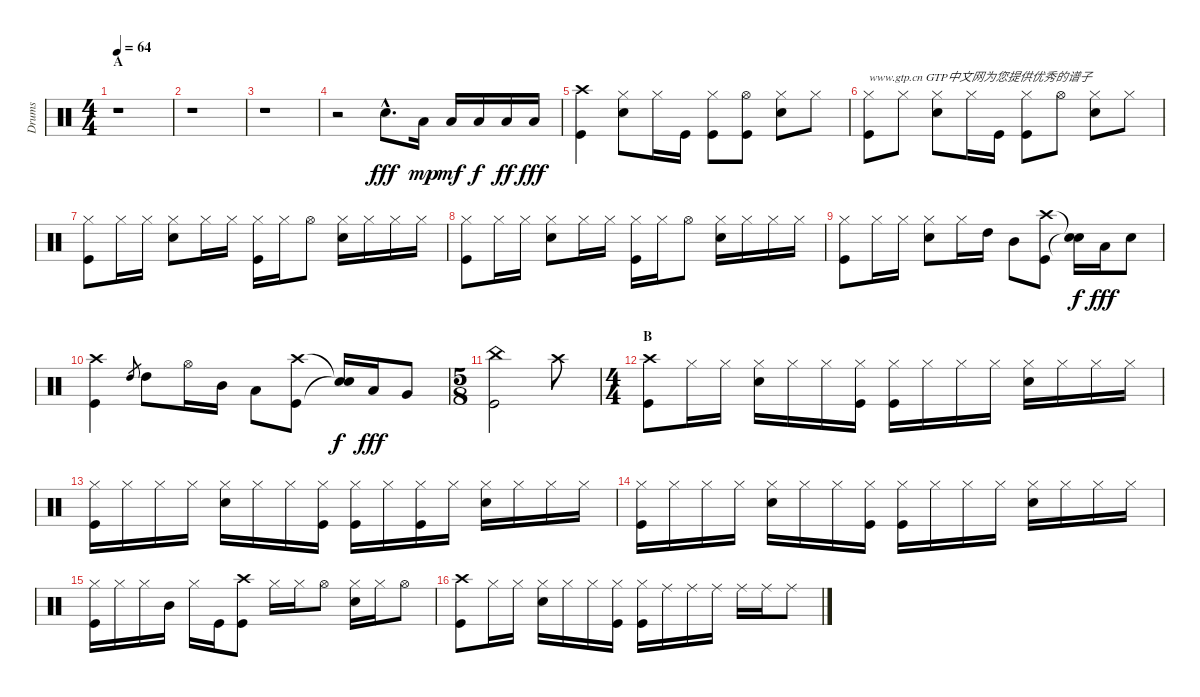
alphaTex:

\track ("Drums" "Drums") {instrument percussion}
\staff {score}
\articulation defaults
\ts (4 4)
\section ("" "A")
\tempo 64
\clef neutral
\ks c
r.1{dy fff} |
r.1 |
r.1 |
r.2 "Snare (hit) 2"{hac}.8{d} "Low Tom (hit)".16{dy mp} "Low Tom (hit)".16{dy mf} "Low Tom (hit)".16{dy f} "Low Tom (hit)".16{dy ff} "Low Tom (hit)".16{dy fff} |
("Crash high (hit)" "Kick (hit)").4 ("Hi-Hat (closed)" "Snare (hit) 2").8 "Hi-Hat (closed)".16 "Kick (hit)".16 ("Hi-Hat (closed)" "Kick (hit)").8 ("Hi-Hat (open)" "Kick (hit)").8 ("Hi-Hat (closed)" "Snare (hit) 2").8 "Hi-Hat (closed)".8 |
("Hi-Hat (closed)" "Kick (hit)").8{txt "www.gtp.cn GTP中文网为您提供优秀的谱子"} "Hi-Hat (closed)".8 ("Hi-Hat (closed)" "Snare (hit) 2").8 "Hi-Hat (closed)".16 "Kick (hit)".16 ("Hi-Hat (closed)" "Kick (hit)").8 "Hi-Hat (open)".8 ("Hi-Hat (closed)" "Snare (hit) 2").8 "Hi-Hat (closed)".8 |
("Hi-Hat (closed)" "Kick (hit)").8 "Hi-Hat (closed)".16 "Hi-Hat (closed)".16 ("Hi-Hat (closed)" "Snare (hit) 2").8 "Hi-Hat (closed)".16 "Hi-Hat (closed)".16 ("Hi-Hat (closed)" "Kick (hit)").16 "Hi-Hat (closed)".16 "Hi-Hat (open)".8 ("Hi-Hat (closed)" "Snare (hit) 2").16 "Hi-Hat (closed)".16 "Hi-Hat (closed)".16 "Hi-Hat (closed)".16 |
("Hi-Hat (closed)" "Kick (hit)").8 "Hi-Hat (closed)".16 "Hi-Hat (closed)".16 ("Hi-Hat (closed)" "Snare (hit) 2").8 "Hi-Hat (closed)".16 "Hi-Hat (closed)".16 ("Hi-Hat (closed)" "Kick (hit)").16 "Hi-Hat (closed)".16 "Hi-Hat (open)".8 ("Hi-Hat (closed)" "Snare (hit) 2").16 "Hi-Hat (closed)".16 "Hi-Hat (closed)".16 "Hi-Hat (closed)".16 |
("Hi-Hat (closed)" "Kick (hit)").8 "Hi-Hat (closed)".16 "Hi-Hat (closed)".16 ("Hi-Hat (closed)" "Snare (hit) 2").8 "Hi-Hat (closed)".16 "High Tom (hit)".16 "Mid Tom (hit)".8 ("Crash high (hit)" "Kick (hit)").8 ("Snare (hit)"{t} "Snare (hit)"{t}).16{dy f} "Low Tom (hit)".16{dy fff} "Snare (hit) 2".8 |
("Crash high (hit)" "Kick (hit)").4 "High Tom (hit)".8{gr} "High Tom (hit)".8 "Hi-Hat (open)".16 "Mid Tom (hit)".16 "Low Tom (hit)".8 ("Crash high (hit)" "Kick (hit)").8 ("Snare (hit)"{t} "Snare (hit)"{t}).16{dy f} "Low Tom (hit)".16{dy fff} "Very Low Tom (hit)".8 |
\ts (5 8)
("China (hit)" "Kick (hit)").2 "Crash high (hit)".8 |
\ts (4 4)
\section ("" "B")
("Crash high (hit)" "Kick (hit)").8 "Hi-Hat (closed)".16 "Hi-Hat (closed)".16 ("Hi-Hat (closed)" "Snare (hit) 2").16 "Hi-Hat (closed)".16 "Hi-Hat (closed)".16 ("Hi-Hat (closed)" "Kick (hit)").16 ("Hi-Hat (closed)" "Kick (hit)").16 "Hi-Hat (closed)".16 "Hi-Hat (closed)".16 "Hi-Hat (closed)".16 ("Hi-Hat (closed)" "Snare (hit) 2").16 "Hi-Hat (closed)".16 "Hi-Hat (closed)".16 "Hi-Hat (closed)".16 |
("Hi-Hat (closed)" "Kick (hit)").16 "Hi-Hat (closed)".16 "Hi-Hat (closed)".16 "Hi-Hat (closed)".16 ("Hi-Hat (closed)" "Snare (hit) 2").16 "Hi-Hat (closed)".16 "Hi-Hat (closed)".16 ("Hi-Hat (closed)" "Kick (hit)").16 ("Hi-Hat (closed)" "Kick (hit)").16 "Hi-Hat (closed)".16 ("Hi-Hat (closed)" "Kick (hit)").16 "Hi-Hat (closed)".16 ("Hi-Hat (closed)" "Snare (hit) 2").16 "Hi-Hat (closed)".16 "Hi-Hat (closed)".16 "Hi-Hat (closed)".16 |
("Hi-Hat (closed)" "Kick (hit)").16 "Hi-Hat (closed)".16 "Hi-Hat (closed)".16 "Hi-Hat (closed)".16 ("Hi-Hat (closed)" "Snare (hit) 2").16 "Hi-Hat (closed)".16 "Hi-Hat (closed)".16 ("Hi-Hat (closed)" "Kick (hit)").16 ("Hi-Hat (closed)" "Kick (hit)").16 "Hi-Hat (closed)".16 "Hi-Hat (closed)".16 "Hi-Hat (closed)".16 ("Hi-Hat (closed)" "Snare (hit) 2").16 "Hi-Hat (closed)".16 "Hi-Hat (closed)".16 "Hi-Hat (closed)".16 |
("Hi-Hat (closed)" "Kick (hit)").16 "Hi-Hat (closed)".16 "Hi-Hat (closed)".16 "Mid Tom (hit)".16 "Hi-Hat (closed)".16 "Kick (hit)".16 ("Crash high (hit)" "Kick (hit)").8 "Hi-Hat (closed)".16 "Hi-Hat (closed)".16 "Hi-Hat (open)".8 ("Hi-Hat (closed)" "Snare (hit) 2").16 "Hi-Hat (closed)".16 "Hi-Hat (open)".8 |
("Crash high (hit)" "Kick (hit)").8 "Hi-Hat (closed)".16 "Hi-Hat (closed)".16 ("Hi-Hat (closed)" "Snare (hit) 2").16 "Hi-Hat (closed)".16 "Hi-Hat (closed)".16 ("Hi-Hat (closed)" "Kick (hit)").16 ("Hi-Hat (closed)" "Kick (hit)").16 "Ride (middle)".16 "Ride (middle)".16 "Ride (middle)".16 "Ride (middle)".16 "Ride (middle)".16 "Ride (middle)".8
